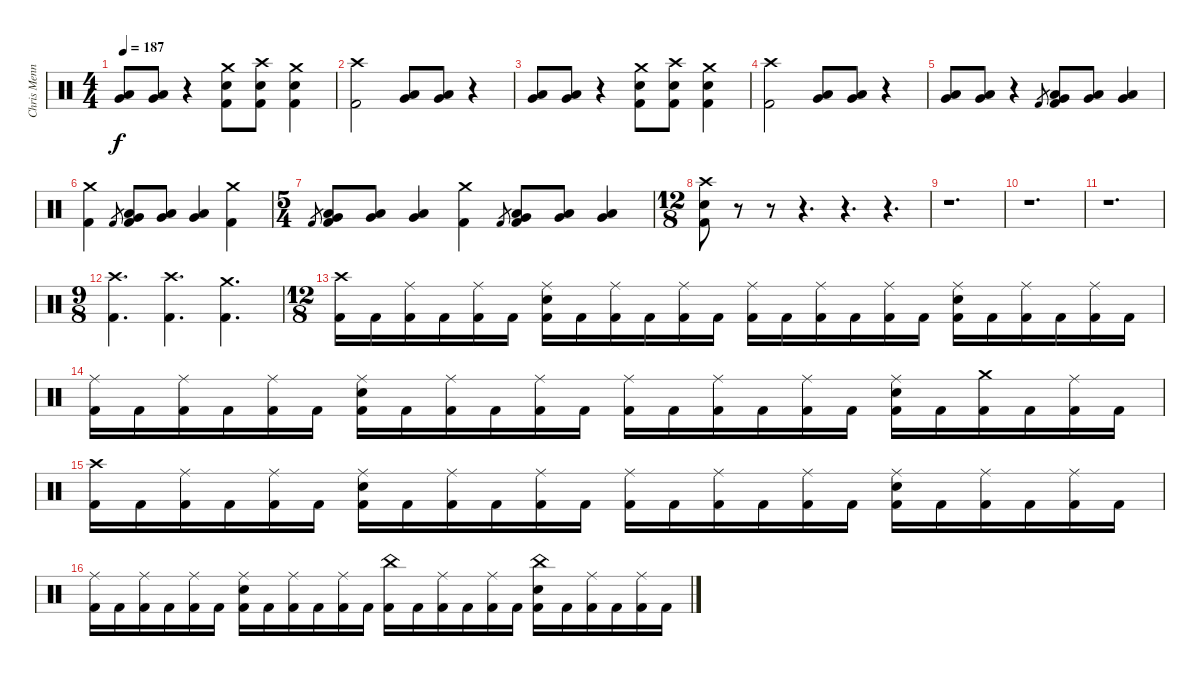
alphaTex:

\track ("Chris Menning" "Chris Menn") {instrument percussion}
\staff {score}
\articulation defaults
\ts (4 4)
\tempo 187
\clef neutral
\ks c
("Low Tom (hit)" "Very Low Tom (hit)").8{dy f} ("Low Tom (hit)" "Very Low Tom (hit)").8 r.4 ("Crash medium (hit)" "Electric Snare (hit)" "Kick (hit) 2").8 ("Crash high (hit)" "Electric Snare (hit)" "Kick (hit) 2").8 ("Crash medium (hit)" "Electric Snare (hit)" "Kick (hit) 2").4 |
("Crash high (hit)" "Kick (hit) 2").2 ("Low Tom (hit)" "Very Low Tom (hit)").8 ("Low Tom (hit)" "Very Low Tom (hit)").8 r.4 |
("Low Tom (hit)" "Very Low Tom (hit)").8 ("Low Tom (hit)" "Very Low Tom (hit)").8 r.4 ("Crash medium (hit)" "Electric Snare (hit)" "Kick (hit) 2").8 ("Crash high (hit)" "Electric Snare (hit)" "Kick (hit) 2").8 ("Crash medium (hit)" "Electric Snare (hit)" "Kick (hit) 2").4 |
("Crash high (hit)" "Kick (hit) 2").2 ("Low Tom (hit)" "Very Low Tom (hit)").8 ("Low Tom (hit)" "Very Low Tom (hit)").8 r.4 |
("Low Tom (hit)" "Very Low Tom (hit)").8 ("Low Tom (hit)" "Very Low Tom (hit)").8 r.4 "Kick (hit) 2".8{gr} ("Low Tom (hit)" "Very Low Tom (hit)" "Kick (hit) 2").8 ("Low Tom (hit)" "Very Low Tom (hit)").8 ("Low Tom (hit)" "Very Low Tom (hit)").4 |
("Crash medium (hit)" "Kick (hit) 2").4 "Kick (hit) 2".8{gr} ("Low Tom (hit)" "Very Low Tom (hit)" "Kick (hit) 2").8 ("Low Tom (hit)" "Very Low Tom (hit)").8 ("Low Tom (hit)" "Very Low Tom (hit)").4 ("Crash medium (hit)" "Kick (hit) 2").4 |
\ts (5 4)
"Kick (hit) 2".8{gr} ("Low Tom (hit)" "Very Low Tom (hit)" "Kick (hit) 2").8 ("Low Tom (hit)" "Very Low Tom (hit)").8 ("Low Tom (hit)" "Very Low Tom (hit)").4 ("Crash medium (hit)" "Kick (hit) 2").4 "Kick (hit) 2".8{gr} ("Low Tom (hit)" "Very Low Tom (hit)" "Kick (hit) 2").8 ("Low Tom (hit)" "Very Low Tom (hit)").8 ("Low Tom (hit)" "Very Low Tom (hit)").4 |
\ts (12 8)
("Crash high (hit)" "Electric Snare (hit)" "Kick (hit) 2").8 r.8 r.8 r.4{d} r.4{d} r.4{d} |
r.1{d} |
r.1{d} |
r.1{d} |
\ts (9 8)
("Crash high (hit)" "Kick (hit) 2").4{d} ("Crash high (hit)" "Kick (hit) 2").4{d} ("Crash medium (hit)" "Kick (hit) 2").4{d} |
\ts (12 8)
("Crash high (hit)" "Kick (hit) 2").16 "Kick (hit) 2".16 ("Ride (middle)" "Kick (hit) 2").16 "Kick (hit) 2".16 ("Ride (middle)" "Kick (hit) 2").16 "Kick (hit) 2".16 ("Ride (middle)" "Electric Snare (hit)" "Kick (hit) 2").16 "Kick (hit) 2".16 ("Ride (middle)" "Kick (hit) 2").16 "Kick (hit) 2".16 ("Ride (middle)" "Kick (hit) 2").16 "Kick (hit) 2".16 ("Ride (middle)" "Kick (hit) 2").16 "Kick (hit) 2".16 ("Ride (middle)" "Kick (hit) 2").16 "Kick (hit) 2".16 ("Ride (middle)" "Kick (hit) 2").16 "Kick (hit) 2".16 ("Ride (middle)" "Electric Snare (hit)" "Kick (hit) 2").16 "Kick (hit) 2".16 ("Ride (middle)" "Kick (hit) 2").16 "Kick (hit) 2".16 ("Ride (middle)" "Kick (hit) 2").16 "Kick (hit) 2".16 |
("Ride (middle)" "Kick (hit) 2").16 "Kick (hit) 2".16 ("Ride (middle)" "Kick (hit) 2").16 "Kick (hit) 2".16 ("Ride (middle)" "Kick (hit) 2").16 "Kick (hit) 2".16 ("Ride (middle)" "Electric Snare (hit)" "Kick (hit) 2").16 "Kick (hit) 2".16 ("Ride (middle)" "Kick (hit) 2").16 "Kick (hit) 2".16 ("Ride (middle)" "Kick (hit) 2").16 "Kick (hit) 2".16 ("Ride (middle)" "Kick (hit) 2").16 "Kick (hit) 2".16 ("Ride (middle)" "Kick (hit) 2").16 "Kick (hit) 2".16 ("Ride (middle)" "Kick (hit) 2").16 "Kick (hit) 2".16 ("Ride (middle)" "Electric Snare (hit)" "Kick (hit) 2").16 "Kick (hit) 2".16 ("Crash medium (hit)" "Kick (hit) 2").16 "Kick (hit) 2".16 ("Ride (middle)" "Kick (hit) 2").16 "Kick (hit) 2".16 |
("Crash high (hit)" "Kick (hit) 2").16 "Kick (hit) 2".16 ("Ride (middle)" "Kick (hit) 2").16 "Kick (hit) 2".16 ("Ride (middle)" "Kick (hit) 2").16 "Kick (hit) 2".16 ("Ride (middle)" "Electric Snare (hit)" "Kick (hit) 2").16 "Kick (hit) 2".16 ("Ride (middle)" "Kick (hit) 2").16 "Kick (hit) 2".16 ("Ride (middle)" "Kick (hit) 2").16 "Kick (hit) 2".16 ("Ride (middle)" "Kick (hit) 2").16 "Kick (hit) 2".16 ("Ride (middle)" "Kick (hit) 2").16 "Kick (hit) 2".16 ("Ride (middle)" "Kick (hit) 2").16 "Kick (hit) 2".16 ("Ride (middle)" "Electric Snare (hit)" "Kick (hit) 2").16 "Kick (hit) 2".16 ("Ride (middle)" "Kick (hit) 2").16 "Kick (hit) 2".16 ("Ride (middle)" "Kick (hit) 2").16 "Kick (hit) 2".16 |
("Ride (middle)" "Kick (hit) 2").16 "Kick (hit) 2".16 ("Ride (middle)" "Kick (hit) 2").16 "Kick (hit) 2".16 ("Ride (middle)" "Kick (hit) 2").16 "Kick (hit) 2".16 ("Ride (middle)" "Electric Snare (hit)" "Kick (hit) 2").16 "Kick (hit) 2".16 ("Ride (middle)" "Kick (hit) 2").16 "Kick (hit) 2".16 ("Ride (middle)" "Kick (hit) 2").16 "Kick (hit) 2".16 ("China (hit)" "Kick (hit) 2").16 "Kick (hit) 2".16 ("Ride (middle)" "Kick (hit) 2").16 "Kick (hit) 2".16 ("Ride (middle)" "Kick (hit) 2").16 "Kick (hit) 2".16 ("China (hit)" "Electric Snare (hit)" "Kick (hit) 2").16 "Kick (hit) 2".16 ("Ride (middle)" "Kick (hit) 2").16 "Kick (hit) 2".16 ("Ride (middle)" "Kick (hit) 2").16 "Kick (hit) 2".16
